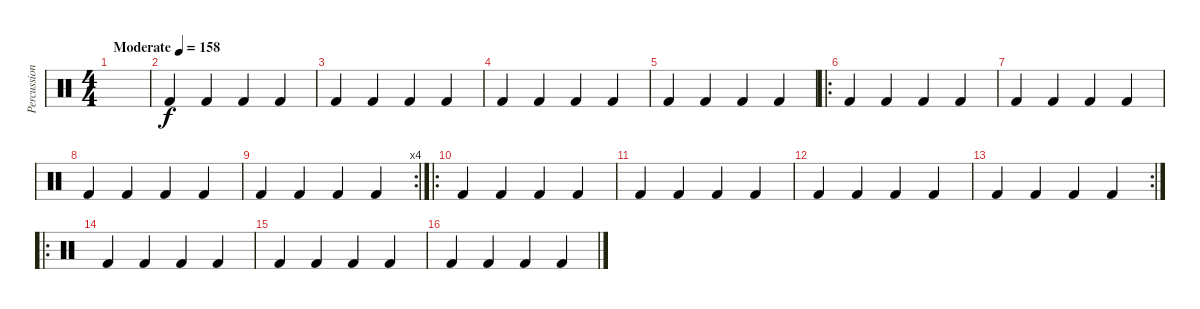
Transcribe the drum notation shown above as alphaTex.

\track ("Percussions" "Percussion") {instrument percussion}
\staff {score}
\articulation defaults
\ts (4 4)
\tempo (158 "Moderate")
\clef neutral
\ks c
|
"Kick (hit) 2".4 "Kick (hit) 2".4 "Kick (hit) 2".4 "Kick (hit) 2".4 |
"Kick (hit) 2".4 "Kick (hit) 2".4 "Kick (hit) 2".4 "Kick (hit) 2".4 |
"Kick (hit) 2".4 "Kick (hit) 2".4 "Kick (hit) 2".4 "Kick (hit) 2".4 |
"Kick (hit) 2".4 "Kick (hit) 2".4 "Kick (hit) 2".4 "Kick (hit) 2".4 |
\ro "Kick (hit) 2".4 "Kick (hit) 2".4 "Kick (hit) 2".4 "Kick (hit) 2".4
|
"Kick (hit) 2".4 "Kick (hit) 2".4 "Kick (hit) 2".4 "Kick (hit) 2".4 |
"Kick (hit) 2".4 "Kick (hit) 2".4 "Kick (hit) 2".4 "Kick (hit) 2".4 |
\rc 4 "Kick (hit) 2".4 "Kick (hit) 2".4 "Kick (hit) 2".4 "Kick (hit) 2".4
|
\ro "Kick (hit) 2".4 "Kick (hit) 2".4 "Kick (hit) 2".4 "Kick (hit) 2".4
|
"Kick (hit) 2".4 "Kick (hit) 2".4 "Kick (hit) 2".4 "Kick (hit) 2".4 |
"Kick (hit) 2".4 "Kick (hit) 2".4 "Kick (hit) 2".4 "Kick (hit) 2".4 |
\rc 2 "Kick (hit) 2".4 "Kick (hit) 2".4 "Kick (hit) 2".4 "Kick (hit) 2".4
|
\ro "Kick (hit) 2".4 "Kick (hit) 2".4 "Kick (hit) 2".4 "Kick (hit) 2".4
|
"Kick (hit) 2".4 "Kick (hit) 2".4 "Kick (hit) 2".4 "Kick (hit) 2".4 |
"Kick (hit) 2".4 "Kick (hit) 2".4 "Kick (hit) 2".4 "Kick (hit) 2".4
